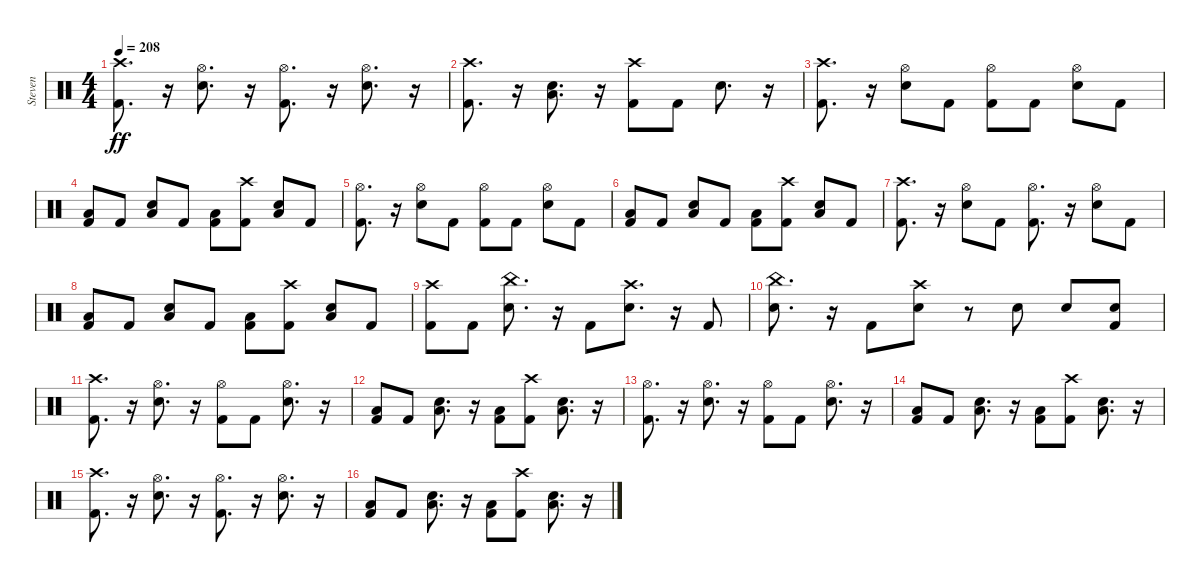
\track ("Steven" "Steven") {instrument percussion}
\staff {score}
\articulation defaults
\ts (4 4)
\tempo 208
\clef neutral
\ks c
("Kick (hit) 2" "Crash high (hit)").8{d dy ff} r.16 ("Snare (hit) 2" "Hi-Hat (open)").8{d} r.16 ("Kick (hit) 2" "Hi-Hat (open)").8{d} r.16 ("Snare (hit) 2" "Hi-Hat (open)").8{d} r.16 |
("Kick (hit) 2" "Crash high (hit)").8{d} r.16 ("Snare (hit) 2" "Low Tom (hit)").8{d} r.16 ("Kick (hit) 2" "Crash high (hit)").8 "Kick (hit) 2".8 "Snare (hit) 2".8{d} r.16 |
("Kick (hit) 2" "Crash high (hit)").8{d} r.16 ("Snare (hit) 2" "Hi-Hat (open)").8 "Kick (hit) 2".8 ("Kick (hit) 2" "Hi-Hat (open)").8 "Kick (hit) 2".8 ("Snare (hit) 2" "Hi-Hat (open)").8 "Kick (hit) 2".8 |
("Kick (hit) 2" "Low Tom (hit)").8 "Kick (hit) 2".8 ("Snare (hit) 2" "Low Tom (hit)").8 "Kick (hit) 2".8 ("Kick (hit) 2" "Low Tom (hit)").8 ("Kick (hit) 2" "Crash high (hit)").8 ("Snare (hit) 2" "Low Tom (hit)").8 "Kick (hit) 2".8 |
("Kick (hit) 2" "Hi-Hat (open)").8{d} r.16 ("Snare (hit) 2" "Hi-Hat (open)").8 "Kick (hit) 2".8 ("Kick (hit) 2" "Hi-Hat (open)").8 "Kick (hit) 2".8 ("Snare (hit) 2" "Hi-Hat (open)").8 "Kick (hit) 2".8 |
("Kick (hit) 2" "Low Tom (hit)").8 "Kick (hit) 2".8 ("Snare (hit) 2" "Low Tom (hit)").8 "Kick (hit) 2".8 ("Kick (hit) 2" "Low Tom (hit)").8 ("Kick (hit) 2" "Crash high (hit)").8 ("Snare (hit) 2" "Low Tom (hit)").8 "Kick (hit) 2".8 |
("Kick (hit) 2" "Crash high (hit)").8{d} r.16 ("Snare (hit) 2" "Hi-Hat (open)").8 "Kick (hit) 2".8 ("Kick (hit) 2" "Hi-Hat (open)").8{d} r.16 ("Snare (hit) 2" "Hi-Hat (open)").8 "Kick (hit) 2".8 |
("Kick (hit) 2" "Low Tom (hit)").8 "Kick (hit) 2".8 ("Snare (hit) 2" "Low Tom (hit)").8 "Kick (hit) 2".8 ("Kick (hit) 2" "Low Tom (hit)").8 ("Kick (hit) 2" "Crash high (hit)").8 ("Snare (hit) 2" "Low Tom (hit)").8 "Kick (hit) 2".8 |
("Kick (hit) 2" "Crash high (hit)").8 "Kick (hit) 2".8 ("Snare (hit) 2" "China (hit)").8{d} r.16 "Kick (hit) 2".8 ("Snare (hit) 2" "Crash high (hit)").8{d} r.16 "Kick (hit) 2".8 |
("Snare (hit) 2" "China (hit)").8{d} r.16 "Kick (hit) 2".8 ("Snare (hit) 2" "Crash high (hit)").8 r.8 "Snare (hit) 2".8 "Snare (hit) 2".8 ("Kick (hit) 2" "Snare (hit) 2").8 |
("Kick (hit) 2" "Crash high (hit)").8{d} r.16 ("Snare (hit) 2" "Hi-Hat (open)").8{d} r.16 ("Kick (hit) 2" "Hi-Hat (open)").8 "Kick (hit) 2".8 ("Snare (hit) 2" "Hi-Hat (open)").8{d} r.16 |
("Kick (hit) 2" "Low Tom (hit)").8 "Kick (hit) 2".8 ("Snare (hit) 2" "Low Tom (hit)").8{d} r.16 ("Kick (hit) 2" "Low Tom (hit)").8 ("Kick (hit) 2" "Crash high (hit)").8 ("Snare (hit) 2" "Low Tom (hit)").8{d} r.16 |
("Kick (hit) 2" "Hi-Hat (open)").8{d} r.16 ("Snare (hit) 2" "Hi-Hat (open)").8{d} r.16 ("Kick (hit) 2" "Hi-Hat (open)").8 "Kick (hit) 2".8 ("Snare (hit) 2" "Hi-Hat (open)").8{d} r.16 |
("Kick (hit) 2" "Low Tom (hit)").8 "Kick (hit) 2".8 ("Snare (hit) 2" "Low Tom (hit)").8{d} r.16 ("Kick (hit) 2" "Low Tom (hit)").8 ("Kick (hit) 2" "Crash high (hit)").8 ("Snare (hit) 2" "Low Tom (hit)").8{d} r.16 |
("Kick (hit) 2" "Crash high (hit)").8{d} r.16 ("Snare (hit) 2" "Hi-Hat (open)").8{d} r.16 ("Kick (hit) 2" "Hi-Hat (open)").8{d} r.16 ("Snare (hit) 2" "Hi-Hat (open)").8{d} r.16 |
("Kick (hit) 2" "Low Tom (hit)").8 "Kick (hit) 2".8 ("Snare (hit) 2" "Low Tom (hit)").8{d} r.16 ("Kick (hit) 2" "Low Tom (hit)").8 ("Kick (hit) 2" "Crash high (hit)").8 ("Snare (hit) 2" "Low Tom (hit)").8{d} r.16
